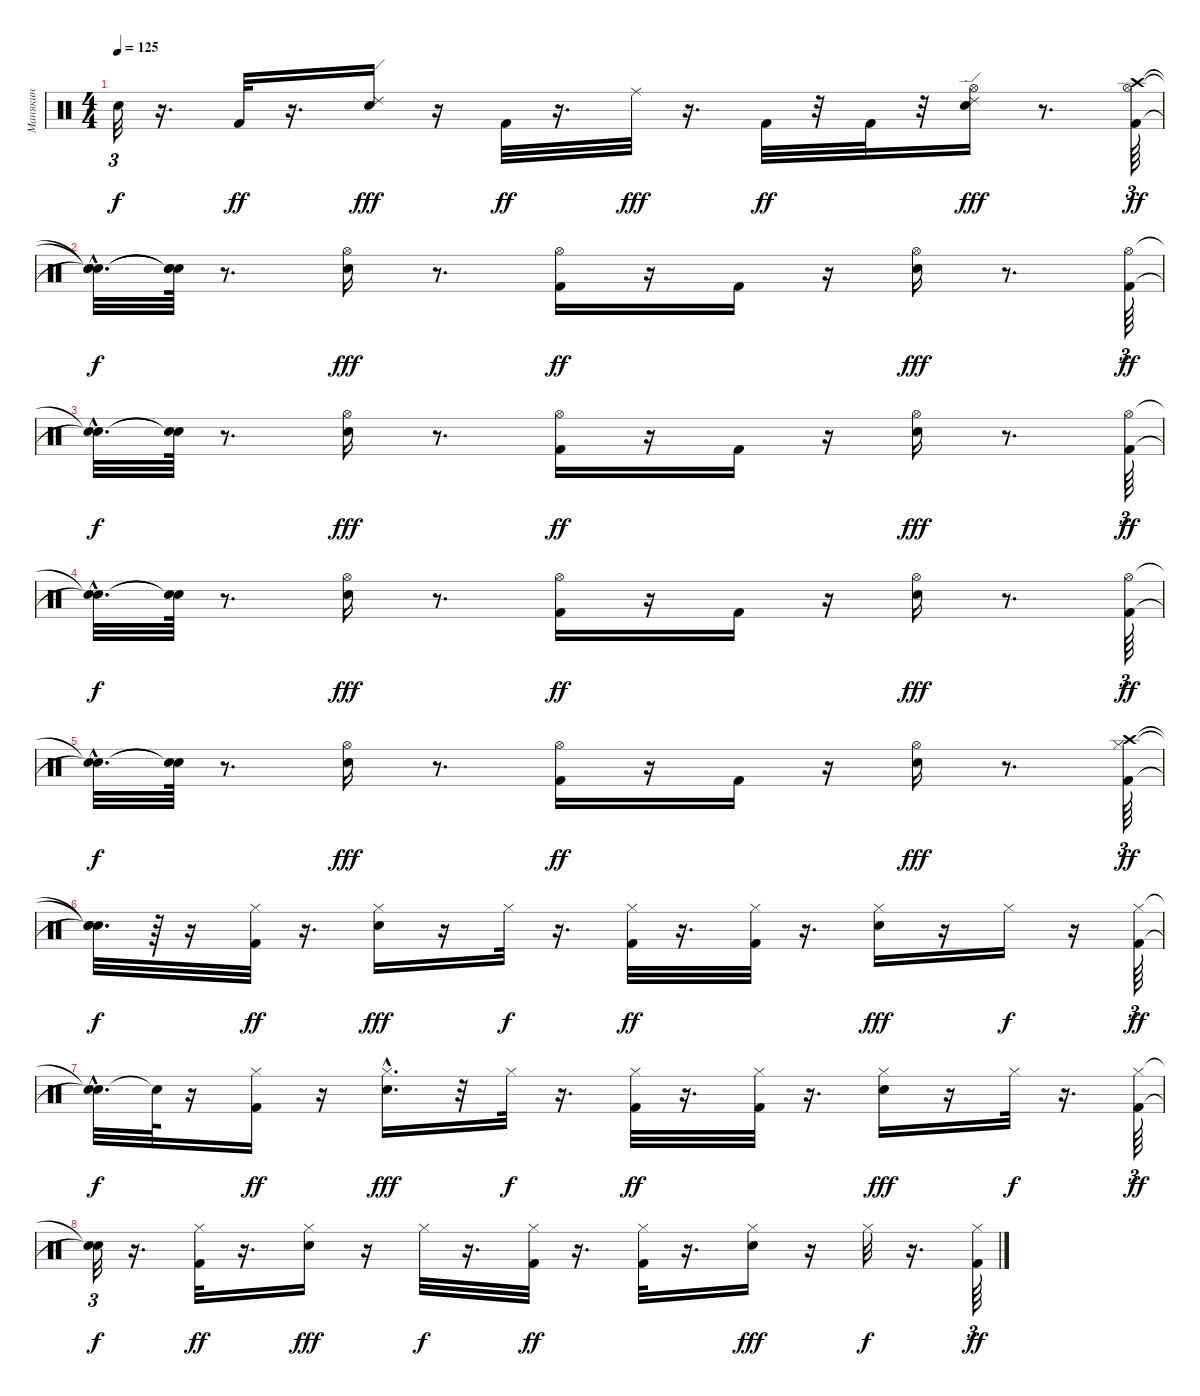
\track ("Манякин" "Манякин") {instrument percussion}
\staff {score}
\articulation defaults
\ts (4 4)
\tempo 125
\clef neutral
\ks c "Snare (hit)"{t}.32{tu (3 2) dy f}
r.16{d} "Kick (hit) 2".32{dy ff} r.16{d} ("Snare (hit) 2" "Ride (edge) 2").16{dy fff} r.16 "Kick (hit) 2".32{dy ff} r.16{d} "Ride (middle)".32{dy fff} r.16{d} "Kick (hit) 2".32{dy ff} r.32 "Kick (hit) 2".32 r.32 ("Snare (hit) 2" "Hi-Hat (open)" "Ride (edge) 2").16{dy fff} r.8{d} ("Kick (hit) 2" "Hi-Hat (open)" "Crash high (hit)").64{tu (3 2) dy ff} |
("Snare (hit)"{hac t} "Snare (hit)"{hac t} "Snare (hit)"{hac t}).32{d dy f} ("Snare (hit)"{t} "Snare (hit)"{t} "Snare (hit)"{t}).64 r.8{d} ("Snare (hit) 2" "Hi-Hat (open)").16{dy fff} r.8{d} ("Kick (hit) 2" "Hi-Hat (open)").16{dy ff} r.16 "Kick (hit) 2".16 r.16 ("Snare (hit) 2" "Hi-Hat (open)").16{dy fff} r.8{d} ("Kick (hit) 2" "Hi-Hat (open)").64{tu (3 2) dy ff} |
("Snare (hit)"{hac t} "Snare (hit)"{hac t}).32{d dy f} ("Snare (hit)"{t} "Snare (hit)"{t}).64 r.8{d} ("Snare (hit) 2" "Hi-Hat (open)").16{dy fff} r.8{d} ("Kick (hit) 2" "Hi-Hat (open)").16{dy ff} r.16 "Kick (hit) 2".16 r.16 ("Snare (hit) 2" "Hi-Hat (open)").16{dy fff} r.8{d} ("Kick (hit) 2" "Hi-Hat (open)").64{tu (3 2) dy ff} |
("Snare (hit)"{hac t} "Snare (hit)"{hac t}).32{d dy f} ("Snare (hit)"{t} "Snare (hit)"{t}).64 r.8{d} ("Snare (hit) 2" "Hi-Hat (open)").16{dy fff} r.8{d} ("Kick (hit) 2" "Hi-Hat (open)").16{dy ff} r.16 "Kick (hit) 2".16 r.16 ("Snare (hit) 2" "Hi-Hat (open)").16{dy fff} r.8{d} ("Kick (hit) 2" "Hi-Hat (open)").64{tu (3 2) dy ff} |
("Snare (hit)"{hac t} "Snare (hit)"{hac t}).32{d dy f} ("Snare (hit)"{t} "Snare (hit)"{t}).64 r.8{d} ("Snare (hit) 2" "Hi-Hat (open)").16{dy fff} r.8{d} ("Kick (hit) 2" "Hi-Hat (open)").16{dy ff} r.16 "Kick (hit) 2".16 r.16 ("Snare (hit) 2" "Hi-Hat (open)").16{dy fff} r.8{d} ("Kick (hit) 2" "Hi-Hat (closed)" "Crash high (hit)").64{tu (3 2) dy ff} |
("Snare (hit)"{t} "Snare (hit)"{t} "Snare (hit)"{t}).32{d dy f} r.64 r.16 ("Kick (hit) 2" "Hi-Hat (closed)").32{dy ff} r.16{d} ("Snare (hit) 2" "Hi-Hat (closed)").16{dy fff} r.16 "Hi-Hat (closed)".32{dy f} r.16{d} ("Kick (hit) 2" "Hi-Hat (closed)").32{dy ff} r.16{d} ("Kick (hit) 2" "Hi-Hat (closed)").32 r.16{d} ("Snare (hit) 2" "Hi-Hat (closed)").16{dy fff} r.16 "Hi-Hat (closed)".16{dy f} r.16 ("Kick (hit) 2" "Hi-Hat (closed)").64{tu (3 2) dy ff} |
("Snare (hit)"{t} "Snare (hit)"{hac t}).32{d dy f} "Snare (hit)"{t}.64 r.16 ("Kick (hit) 2" "Hi-Hat (closed)").16{dy ff} r.16 ("Snare (hit) 2"{hac} "Hi-Hat (closed)").16{d dy fff} r.32 "Hi-Hat (closed)".32{dy f} r.16{d} ("Kick (hit) 2" "Hi-Hat (closed)").32{dy ff} r.16{d} ("Kick (hit) 2" "Hi-Hat (closed)").32 r.16{d} ("Snare (hit) 2" "Hi-Hat (closed)").16{dy fff} r.16 "Hi-Hat (closed)".32{dy f} r.16{d} ("Kick (hit) 2" "Hi-Hat (closed)").64{tu (3 2) dy ff} |
("Snare (hit)"{t} "Snare (hit)"{t}).32{tu (3 2) dy f} r.16{d} ("Kick (hit) 2" "Hi-Hat (closed)").32{dy ff} r.16{d} ("Snare (hit) 2" "Hi-Hat (closed)").16{dy fff} r.16 "Hi-Hat (closed)".32{dy f} r.16{d} ("Kick (hit) 2" "Hi-Hat (closed)").32{dy ff} r.16{d} ("Kick (hit) 2" "Hi-Hat (closed)").32 r.16{d} ("Snare (hit) 2" "Hi-Hat (closed)").16{dy fff} r.16 "Hi-Hat (closed)".32{dy f} r.16{d} ("Kick (hit) 2" "Hi-Hat (closed)").64{tu (3 2) dy ff}
